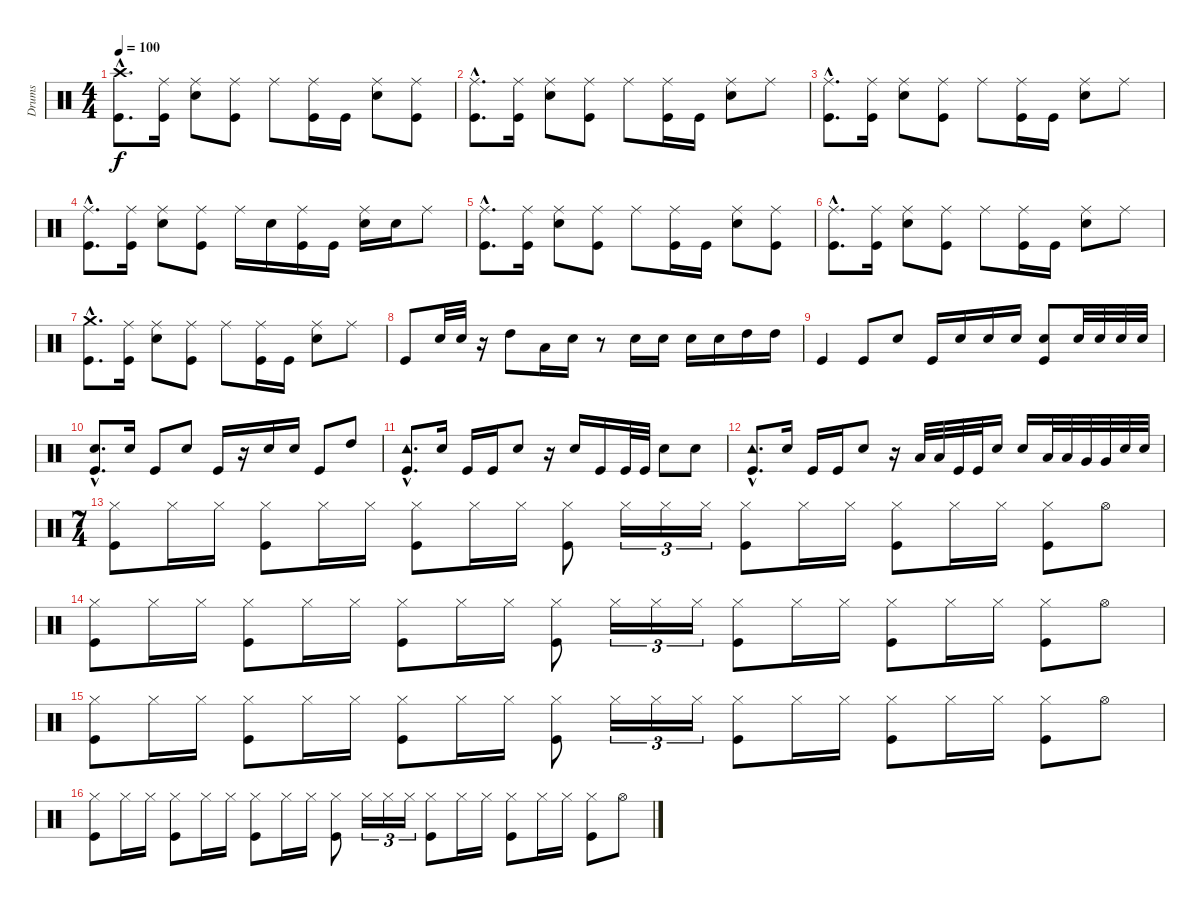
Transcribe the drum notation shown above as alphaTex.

\track ("Drums" "Drums") {instrument percussion}
\staff {score}
\articulation defaults
\ts (4 4)
\tempo 100
\clef neutral
\ks c
("Kick (hit)"{hac} "Crash high (hit)"{hac}).8{d dy f volume 13} ("Kick (hit)" "Ride (middle)").16 ("Snare (hit) 2" "Ride (middle)").8 ("Kick (hit)" "Ride (middle)").8 "Ride (middle)".8 ("Kick (hit)" "Ride (middle)").16 "Kick (hit)".16 ("Snare (hit) 2" "Ride (middle)").8 ("Kick (hit)" "Ride (middle)").8 |
("Kick (hit)"{hac} "Ride (middle)"{hac}).8{d} ("Kick (hit)" "Ride (middle)").16 ("Snare (hit) 2" "Ride (middle)").8 ("Kick (hit)" "Ride (middle)").8 "Ride (middle)".8 ("Kick (hit)" "Ride (middle)").16 "Kick (hit)".16 ("Snare (hit) 2" "Ride (middle)").8 "Ride (middle)".8 |
("Kick (hit)"{hac} "Ride (middle)"{hac}).8{d} ("Kick (hit)" "Ride (middle)").16 ("Snare (hit) 2" "Ride (middle)").8 ("Kick (hit)" "Ride (middle)").8 "Ride (middle)".8 ("Kick (hit)" "Ride (middle)").16 "Kick (hit)".16 ("Snare (hit) 2" "Ride (middle)").8 "Ride (middle)".8 |
("Kick (hit)"{hac} "Ride (middle)"{hac}).8{d} ("Kick (hit)" "Ride (middle)").16 ("Snare (hit) 2" "Ride (middle)").8 ("Kick (hit)" "Ride (middle)").8 "Ride (middle)".16 "Snare (hit) 2".16 ("Kick (hit)" "Ride (middle)").16 "Kick (hit)".16 ("Snare (hit) 2" "Ride (middle)").16 "Snare (hit) 2".16 "Ride (middle)".8 |
("Kick (hit)"{hac} "Ride (middle)"{hac}).8{d volume 13} ("Kick (hit)" "Ride (middle)").16 ("Snare (hit) 2" "Ride (middle)").8 ("Kick (hit)" "Ride (middle)").8 "Ride (middle)".8 ("Kick (hit)" "Ride (middle)").16 "Kick (hit)".16 ("Snare (hit) 2" "Ride (middle)").8 ("Kick (hit)" "Ride (middle)").8 |
("Kick (hit)"{hac} "Ride (middle)"{hac}).8{d} ("Kick (hit)" "Ride (middle)").16 ("Snare (hit) 2" "Ride (middle)").8 ("Kick (hit)" "Ride (middle)").8 "Ride (middle)".8 ("Kick (hit)" "Ride (middle)").16 "Kick (hit)".16 ("Snare (hit) 2" "Ride (middle)").8 "Ride (middle)".8 |
("Kick (hit)"{hac} "Crash medium (hit)"{hac}).8{d} ("Kick (hit)" "Ride (middle)").16 ("Snare (hit) 2" "Ride (middle)").8 ("Kick (hit)" "Ride (middle)").8 "Ride (middle)".8 ("Kick (hit)" "Ride (middle)").16 "Kick (hit)".16 ("Snare (hit) 2" "Ride (middle)").8 "Ride (middle)".8 |
"Kick (hit)".8 "Snare (hit) 2".32 "Snare (hit) 2".32 r.16 "High Tom (hit)".8 "Low Tom (hit)".16 "Snare (hit) 2".16 r.8 "Snare (hit) 2".16 "Snare (hit) 2".16 "Snare (hit) 2".16 "Snare (hit) 2".16 "High Tom (hit)".16 "High Tom (hit)".16 |
"Kick (hit)".4 "Kick (hit)".8 "Snare (hit) 2".8 "Kick (hit)".16 "Snare (hit) 2".16 "Snare (hit) 2".16 "Snare (hit) 2".16 ("Kick (hit)" "Snare (hit) 2").8 "Snare (hit) 2".32 "Snare (hit) 2".32 "Snare (hit) 2".32 "Snare (hit) 2".32 |
("Kick (hit)"{hac} "Snare (hit) 2"{hac}).8{d} "Snare (hit) 2".16 "Kick (hit)".8 "Snare (hit) 2".8 "Kick (hit)".16 r.16 "Snare (hit) 2".16 "Snare (hit) 2".16 "Kick (hit)".8 "High Tom (hit)".8 |
("Kick (hit)"{hac} "Tambourine (hit)"{hac}).8{d} "Snare (hit) 2".16 "Kick (hit)".16 "Kick (hit)".16 "Snare (hit) 2".8 r.16 "Snare (hit) 2".16 "Kick (hit)".16 "Kick (hit)".32 "Kick (hit)".32 "Snare (hit) 2".8 "Snare (hit) 2".8 |
("Kick (hit)"{hac} "Tambourine (hit)"{hac}).8{d} "Snare (hit) 2".16 "Kick (hit)".16 "Kick (hit)".16 "Snare (hit) 2".8 r.16 "Low Tom (hit)".32 "Low Tom (hit)".32 "Kick (hit)".32 "Kick (hit)".32 "Snare (hit) 2".16 "Snare (hit) 2".16 "Low Tom (hit)".32 "Low Tom (hit)".32 "Very Low Tom (hit)".32 "Very Low Tom (hit)".32 "Snare (hit) 2".32 "Snare (hit) 2".32 |
\ts (7 4)
("Kick (hit)" "Hi-Hat (closed)").8 "Hi-Hat (closed)".16 "Hi-Hat (closed)".16 ("Kick (hit)" "Hi-Hat (closed)").8 "Hi-Hat (closed)".16 "Hi-Hat (closed)".16 ("Kick (hit)" "Hi-Hat (closed)").8 "Hi-Hat (closed)".16 "Hi-Hat (closed)".16 ("Kick (hit)" "Hi-Hat (closed)").8 "Hi-Hat (closed)".16{tu (3 2)} "Hi-Hat (closed)".16{tu (3 2)} "Hi-Hat (closed)".16{tu (3 2)} ("Kick (hit)" "Hi-Hat (closed)").8 "Hi-Hat (closed)".16 "Hi-Hat (closed)".16 ("Kick (hit)" "Hi-Hat (closed)").8 "Hi-Hat (closed)".16 "Hi-Hat (closed)".16 ("Kick (hit)" "Hi-Hat (closed)").8 "Hi-Hat (open)".8 |
("Kick (hit)" "Hi-Hat (closed)").8 "Hi-Hat (closed)".16 "Hi-Hat (closed)".16 ("Kick (hit)" "Hi-Hat (closed)").8 "Hi-Hat (closed)".16 "Hi-Hat (closed)".16 ("Kick (hit)" "Hi-Hat (closed)").8 "Hi-Hat (closed)".16 "Hi-Hat (closed)".16 ("Kick (hit)" "Hi-Hat (closed)").8 "Hi-Hat (closed)".16{tu (3 2)} "Hi-Hat (closed)".16{tu (3 2)} "Hi-Hat (closed)".16{tu (3 2)} ("Kick (hit)" "Hi-Hat (closed)").8 "Hi-Hat (closed)".16 "Hi-Hat (closed)".16 ("Kick (hit)" "Hi-Hat (closed)").8 "Hi-Hat (closed)".16 "Hi-Hat (closed)".16 ("Kick (hit)" "Hi-Hat (closed)").8 "Hi-Hat (open)".8 |
("Kick (hit)" "Hi-Hat (closed)").8 "Hi-Hat (closed)".16 "Hi-Hat (closed)".16 ("Kick (hit)" "Hi-Hat (closed)").8 "Hi-Hat (closed)".16 "Hi-Hat (closed)".16 ("Kick (hit)" "Hi-Hat (closed)").8 "Hi-Hat (closed)".16 "Hi-Hat (closed)".16 ("Kick (hit)" "Hi-Hat (closed)").8 "Hi-Hat (closed)".16{tu (3 2)} "Hi-Hat (closed)".16{tu (3 2)} "Hi-Hat (closed)".16{tu (3 2)} ("Kick (hit)" "Hi-Hat (closed)").8 "Hi-Hat (closed)".16 "Hi-Hat (closed)".16 ("Kick (hit)" "Hi-Hat (closed)").8 "Hi-Hat (closed)".16 "Hi-Hat (closed)".16 ("Kick (hit)" "Hi-Hat (closed)").8 "Hi-Hat (open)".8 |
("Kick (hit)" "Hi-Hat (closed)").8 "Hi-Hat (closed)".16 "Hi-Hat (closed)".16 ("Kick (hit)" "Hi-Hat (closed)").8 "Hi-Hat (closed)".16 "Hi-Hat (closed)".16 ("Kick (hit)" "Hi-Hat (closed)").8 "Hi-Hat (closed)".16 "Hi-Hat (closed)".16 ("Kick (hit)" "Hi-Hat (closed)").8 "Hi-Hat (closed)".16{tu (3 2)} "Hi-Hat (closed)".16{tu (3 2)} "Hi-Hat (closed)".16{tu (3 2)} ("Kick (hit)" "Hi-Hat (closed)").8 "Hi-Hat (closed)".16 "Hi-Hat (closed)".16 ("Kick (hit)" "Hi-Hat (closed)").8 "Hi-Hat (closed)".16 "Hi-Hat (closed)".16 ("Kick (hit)" "Hi-Hat (closed)").8 "Hi-Hat (open)".8
